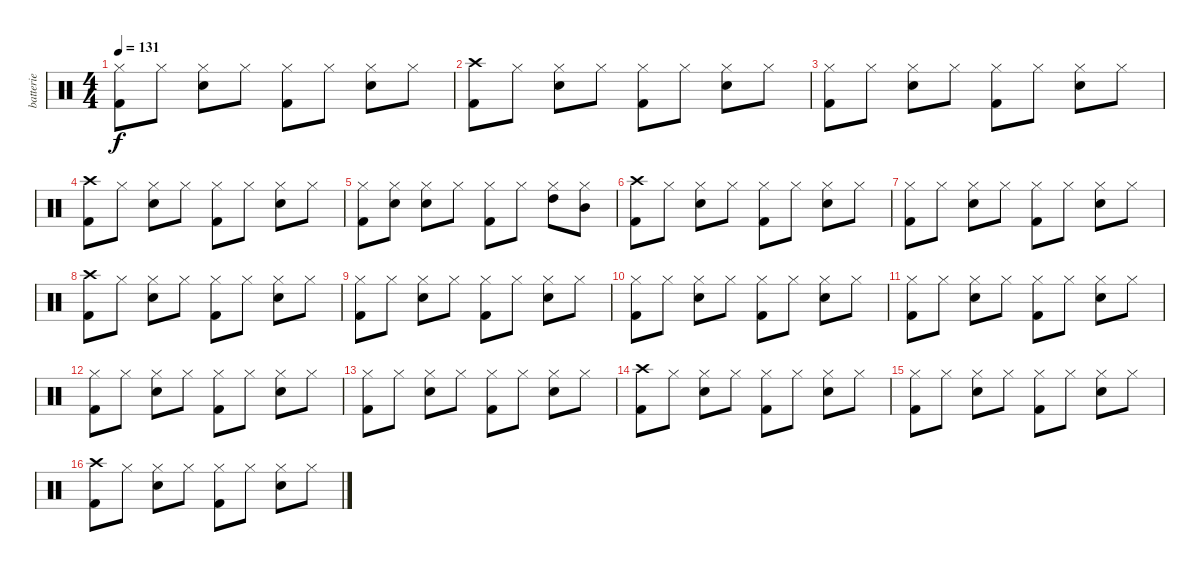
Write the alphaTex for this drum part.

\track ("batterie" "batterie") {instrument percussion}
\staff {score}
\articulation defaults
\ts (4 4)
\tempo 131
\clef neutral
\ks c
("Hi-Hat (closed)" "Kick (hit) 2").8{dy f} "Hi-Hat (closed)".8 ("Hi-Hat (closed)" "Electric Snare (hit)").8 "Hi-Hat (closed)".8 ("Hi-Hat (closed)" "Kick (hit) 2").8 "Hi-Hat (closed)".8 ("Hi-Hat (closed)" "Electric Snare (hit)").8 "Hi-Hat (closed)".8 |
("Crash high (hit)" "Kick (hit) 2").8 "Hi-Hat (closed)".8 ("Hi-Hat (closed)" "Electric Snare (hit)").8 "Hi-Hat (closed)".8 ("Hi-Hat (closed)" "Kick (hit) 2").8 "Hi-Hat (closed)".8 ("Hi-Hat (closed)" "Electric Snare (hit)").8 "Hi-Hat (closed)".8 |
("Hi-Hat (closed)" "Kick (hit) 2").8 "Hi-Hat (closed)".8 ("Hi-Hat (closed)" "Electric Snare (hit)").8 "Hi-Hat (closed)".8 ("Hi-Hat (closed)" "Kick (hit) 2").8 "Hi-Hat (closed)".8 ("Hi-Hat (closed)" "Electric Snare (hit)").8 "Hi-Hat (closed)".8 |
("Crash high (hit)" "Kick (hit) 2").8 "Hi-Hat (closed)".8 ("Hi-Hat (closed)" "Electric Snare (hit)").8 "Hi-Hat (closed)".8 ("Hi-Hat (closed)" "Kick (hit) 2").8 "Hi-Hat (closed)".8 ("Hi-Hat (closed)" "Electric Snare (hit)").8 "Hi-Hat (closed)".8 |
("Hi-Hat (closed)" "Kick (hit) 2").8 ("Hi-Hat (closed)" "Electric Snare (hit)").8 ("Hi-Hat (closed)" "Electric Snare (hit)").8 "Hi-Hat (closed)".8 ("Hi-Hat (closed)" "Kick (hit) 2").8 "Hi-Hat (closed)".8 ("Hi-Hat (closed)" "High Tom (hit)").8 ("Hi-Hat (closed)" "Mid Tom (hit)").8 |
("Crash high (hit)" "Kick (hit) 2").8 "Hi-Hat (closed)".8 ("Hi-Hat (closed)" "Electric Snare (hit)").8 "Hi-Hat (closed)".8 ("Hi-Hat (closed)" "Kick (hit) 2").8 "Hi-Hat (closed)".8 ("Hi-Hat (closed)" "Electric Snare (hit)").8 "Hi-Hat (closed)".8 |
("Hi-Hat (closed)" "Kick (hit) 2").8 "Hi-Hat (closed)".8 ("Hi-Hat (closed)" "Electric Snare (hit)").8 "Hi-Hat (closed)".8 ("Hi-Hat (closed)" "Kick (hit) 2").8 "Hi-Hat (closed)".8 ("Hi-Hat (closed)" "Electric Snare (hit)").8 "Hi-Hat (closed)".8 |
("Crash high (hit)" "Kick (hit) 2").8 "Hi-Hat (closed)".8 ("Hi-Hat (closed)" "Electric Snare (hit)").8 "Hi-Hat (closed)".8 ("Hi-Hat (closed)" "Kick (hit) 2").8 "Hi-Hat (closed)".8 ("Hi-Hat (closed)" "Electric Snare (hit)").8 "Hi-Hat (closed)".8 |
("Hi-Hat (closed)" "Kick (hit) 2").8 "Hi-Hat (closed)".8 ("Hi-Hat (closed)" "Electric Snare (hit)").8 "Hi-Hat (closed)".8 ("Hi-Hat (closed)" "Kick (hit) 2").8 "Hi-Hat (closed)".8 ("Hi-Hat (closed)" "Electric Snare (hit)").8 "Hi-Hat (closed)".8 |
("Hi-Hat (closed)" "Kick (hit) 2").8 "Hi-Hat (closed)".8 ("Hi-Hat (closed)" "Electric Snare (hit)").8 "Hi-Hat (closed)".8 ("Hi-Hat (closed)" "Kick (hit) 2").8 "Hi-Hat (closed)".8 ("Hi-Hat (closed)" "Electric Snare (hit)").8 "Hi-Hat (closed)".8 |
("Hi-Hat (closed)" "Kick (hit) 2").8 "Hi-Hat (closed)".8 ("Hi-Hat (closed)" "Electric Snare (hit)").8 "Hi-Hat (closed)".8 ("Hi-Hat (closed)" "Kick (hit) 2").8 "Hi-Hat (closed)".8 ("Hi-Hat (closed)" "Electric Snare (hit)").8 "Hi-Hat (closed)".8 |
("Hi-Hat (closed)" "Kick (hit) 2").8 "Hi-Hat (closed)".8 ("Hi-Hat (closed)" "Electric Snare (hit)").8 "Hi-Hat (closed)".8 ("Hi-Hat (closed)" "Kick (hit) 2").8 "Hi-Hat (closed)".8 ("Hi-Hat (closed)" "Electric Snare (hit)").8 "Hi-Hat (closed)".8 |
("Hi-Hat (closed)" "Kick (hit) 2").8 "Hi-Hat (closed)".8 ("Hi-Hat (closed)" "Electric Snare (hit)").8 "Hi-Hat (closed)".8 ("Hi-Hat (closed)" "Kick (hit) 2").8 "Hi-Hat (closed)".8 ("Hi-Hat (closed)" "Electric Snare (hit)").8 "Hi-Hat (closed)".8 |
("Crash high (hit)" "Kick (hit) 2").8 "Hi-Hat (closed)".8 ("Hi-Hat (closed)" "Electric Snare (hit)").8 "Hi-Hat (closed)".8 ("Hi-Hat (closed)" "Kick (hit) 2").8 "Hi-Hat (closed)".8 ("Hi-Hat (closed)" "Electric Snare (hit)").8 "Hi-Hat (closed)".8 |
("Hi-Hat (closed)" "Kick (hit) 2").8 "Hi-Hat (closed)".8 ("Hi-Hat (closed)" "Electric Snare (hit)").8 "Hi-Hat (closed)".8 ("Hi-Hat (closed)" "Kick (hit) 2").8 "Hi-Hat (closed)".8 ("Hi-Hat (closed)" "Electric Snare (hit)").8 "Hi-Hat (closed)".8 |
("Crash high (hit)" "Kick (hit) 2").8 "Hi-Hat (closed)".8 ("Hi-Hat (closed)" "Electric Snare (hit)").8 "Hi-Hat (closed)".8 ("Hi-Hat (closed)" "Kick (hit) 2").8 "Hi-Hat (closed)".8 ("Hi-Hat (closed)" "Electric Snare (hit)").8 "Hi-Hat (closed)".8
